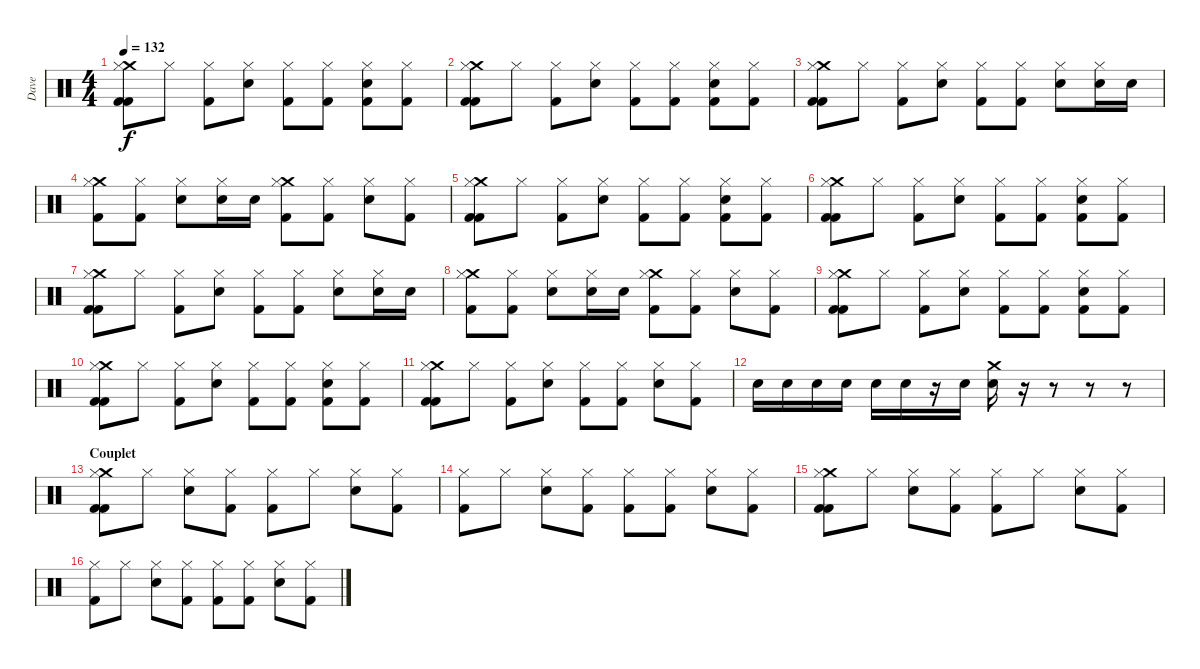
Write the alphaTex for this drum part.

\track ("Dave" "Dave") {instrument percussion}
\staff {score}
\articulation defaults
\ts (4 4)
\tempo 132
\clef neutral
\ks c
("Crash medium (hit)" "Hi-Hat (closed)" "Kick (hit) 2" "Kick (hit) 2").8{dy f} "Hi-Hat (closed)".8 ("Hi-Hat (closed)" "Kick (hit) 2").8 ("Hi-Hat (closed)" "Electric Snare (hit)").8 ("Hi-Hat (closed)" "Kick (hit) 2").8 ("Hi-Hat (closed)" "Kick (hit) 2").8 ("Hi-Hat (closed)" "Kick (hit) 2" "Electric Snare (hit)").8 ("Hi-Hat (closed)" "Kick (hit) 2").8 |
("Crash medium (hit)" "Hi-Hat (closed)" "Kick (hit) 2" "Kick (hit) 2").8 "Hi-Hat (closed)".8 ("Hi-Hat (closed)" "Kick (hit) 2").8 ("Hi-Hat (closed)" "Electric Snare (hit)").8 ("Hi-Hat (closed)" "Kick (hit) 2").8 ("Hi-Hat (closed)" "Kick (hit) 2").8 ("Hi-Hat (closed)" "Kick (hit) 2" "Electric Snare (hit)").8 ("Hi-Hat (closed)" "Kick (hit) 2").8 |
("Crash medium (hit)" "Hi-Hat (closed)" "Kick (hit) 2" "Kick (hit) 2").8 "Hi-Hat (closed)".8 ("Hi-Hat (closed)" "Kick (hit) 2").8 ("Hi-Hat (closed)" "Electric Snare (hit)").8 ("Hi-Hat (closed)" "Kick (hit) 2").8 ("Hi-Hat (closed)" "Kick (hit) 2").8 ("Hi-Hat (closed)" "Electric Snare (hit)").8 ("Hi-Hat (closed)" "Electric Snare (hit)").16 "Electric Snare (hit)".16 |
("Crash medium (hit)" "Hi-Hat (closed)" "Kick (hit) 2").8 ("Hi-Hat (closed)" "Kick (hit) 2").8 ("Hi-Hat (closed)" "Electric Snare (hit)").8 ("Hi-Hat (closed)" "Electric Snare (hit)").16 "Electric Snare (hit)".16 ("Crash medium (hit)" "Hi-Hat (closed)" "Kick (hit) 2").8 ("Hi-Hat (closed)" "Kick (hit) 2").8 ("Hi-Hat (closed)" "Electric Snare (hit)").8 ("Hi-Hat (closed)" "Kick (hit) 2").8 |
("Crash medium (hit)" "Hi-Hat (closed)" "Kick (hit) 2" "Kick (hit) 2").8 "Hi-Hat (closed)".8 ("Hi-Hat (closed)" "Kick (hit) 2").8 ("Hi-Hat (closed)" "Electric Snare (hit)").8 ("Hi-Hat (closed)" "Kick (hit) 2").8 ("Hi-Hat (closed)" "Kick (hit) 2").8 ("Hi-Hat (closed)" "Kick (hit) 2" "Electric Snare (hit)").8 ("Hi-Hat (closed)" "Kick (hit) 2").8 |
("Crash medium (hit)" "Hi-Hat (closed)" "Kick (hit) 2" "Kick (hit) 2").8 "Hi-Hat (closed)".8 ("Hi-Hat (closed)" "Kick (hit) 2").8 ("Hi-Hat (closed)" "Electric Snare (hit)").8 ("Hi-Hat (closed)" "Kick (hit) 2").8 ("Hi-Hat (closed)" "Kick (hit) 2").8 ("Hi-Hat (closed)" "Kick (hit) 2" "Electric Snare (hit)").8 ("Hi-Hat (closed)" "Kick (hit) 2").8 |
("Crash medium (hit)" "Hi-Hat (closed)" "Kick (hit) 2" "Kick (hit) 2").8 "Hi-Hat (closed)".8 ("Hi-Hat (closed)" "Kick (hit) 2").8 ("Hi-Hat (closed)" "Electric Snare (hit)").8 ("Hi-Hat (closed)" "Kick (hit) 2").8 ("Hi-Hat (closed)" "Kick (hit) 2").8 ("Hi-Hat (closed)" "Electric Snare (hit)").8 ("Hi-Hat (closed)" "Electric Snare (hit)").16 "Electric Snare (hit)".16 |
("Crash medium (hit)" "Hi-Hat (closed)" "Kick (hit) 2").8 ("Hi-Hat (closed)" "Kick (hit) 2").8 ("Hi-Hat (closed)" "Electric Snare (hit)").8 ("Hi-Hat (closed)" "Electric Snare (hit)").16 "Electric Snare (hit)".16 ("Crash medium (hit)" "Hi-Hat (closed)" "Kick (hit) 2").8 ("Hi-Hat (closed)" "Kick (hit) 2").8 ("Hi-Hat (closed)" "Electric Snare (hit)").8 ("Hi-Hat (closed)" "Kick (hit) 2").8 |
("Crash medium (hit)" "Hi-Hat (closed)" "Kick (hit) 2" "Kick (hit) 2").8 "Hi-Hat (closed)".8 ("Hi-Hat (closed)" "Kick (hit) 2").8 ("Hi-Hat (closed)" "Electric Snare (hit)").8 ("Hi-Hat (closed)" "Kick (hit) 2").8 ("Hi-Hat (closed)" "Kick (hit) 2").8 ("Hi-Hat (closed)" "Kick (hit) 2" "Electric Snare (hit)").8 ("Hi-Hat (closed)" "Kick (hit) 2").8 |
("Crash medium (hit)" "Hi-Hat (closed)" "Kick (hit) 2" "Kick (hit) 2").8 "Hi-Hat (closed)".8 ("Hi-Hat (closed)" "Kick (hit) 2").8 ("Hi-Hat (closed)" "Electric Snare (hit)").8 ("Hi-Hat (closed)" "Kick (hit) 2").8 ("Hi-Hat (closed)" "Kick (hit) 2").8 ("Hi-Hat (closed)" "Kick (hit) 2" "Electric Snare (hit)").8 ("Hi-Hat (closed)" "Kick (hit) 2").8 |
("Crash medium (hit)" "Hi-Hat (closed)" "Kick (hit) 2" "Kick (hit) 2").8 "Hi-Hat (closed)".8 ("Hi-Hat (closed)" "Kick (hit) 2").8 ("Hi-Hat (closed)" "Electric Snare (hit)").8 ("Hi-Hat (closed)" "Kick (hit) 2").8 ("Hi-Hat (closed)" "Kick (hit) 2").8 ("Hi-Hat (closed)" "Electric Snare (hit)").8 ("Hi-Hat (closed)" "Kick (hit) 2").8 |
"Electric Snare (hit)".16 "Electric Snare (hit)".16 "Electric Snare (hit)".16 "Electric Snare (hit)".16 "Electric Snare (hit)".16 "Electric Snare (hit)".16 r.16 "Electric Snare (hit)".16 ("Crash medium (hit)" "Electric Snare (hit)").16 r.16 r.8 r.8 r.8 |
\section ("" "Couplet")
("Crash medium (hit)" "Hi-Hat (closed)" "Kick (hit) 2" "Kick (hit) 2").8 "Hi-Hat (closed)".8 ("Hi-Hat (closed)" "Electric Snare (hit)").8 ("Hi-Hat (closed)" "Kick (hit) 2").8 ("Hi-Hat (closed)" "Kick (hit) 2").8 "Hi-Hat (closed)".8 ("Hi-Hat (closed)" "Electric Snare (hit)").8 ("Hi-Hat (closed)" "Kick (hit) 2").8 |
("Hi-Hat (closed)" "Kick (hit) 2").8 "Hi-Hat (closed)".8 ("Hi-Hat (closed)" "Electric Snare (hit)").8 ("Hi-Hat (closed)" "Kick (hit) 2").8 ("Hi-Hat (closed)" "Kick (hit) 2").8 ("Hi-Hat (closed)" "Kick (hit) 2").8 ("Hi-Hat (closed)" "Electric Snare (hit)").8 ("Hi-Hat (closed)" "Kick (hit) 2").8 |
("Crash medium (hit)" "Hi-Hat (closed)" "Kick (hit) 2" "Kick (hit) 2").8 "Hi-Hat (closed)".8 ("Hi-Hat (closed)" "Electric Snare (hit)").8 ("Hi-Hat (closed)" "Kick (hit) 2").8 ("Hi-Hat (closed)" "Kick (hit) 2").8 "Hi-Hat (closed)".8 ("Hi-Hat (closed)" "Electric Snare (hit)").8 ("Hi-Hat (closed)" "Kick (hit) 2").8 |
("Hi-Hat (closed)" "Kick (hit) 2").8 "Hi-Hat (closed)".8 ("Hi-Hat (closed)" "Electric Snare (hit)").8 ("Hi-Hat (closed)" "Kick (hit) 2").8 ("Hi-Hat (closed)" "Kick (hit) 2").8 ("Hi-Hat (closed)" "Kick (hit) 2").8 ("Hi-Hat (closed)" "Electric Snare (hit)").8 ("Hi-Hat (closed)" "Kick (hit) 2").8
